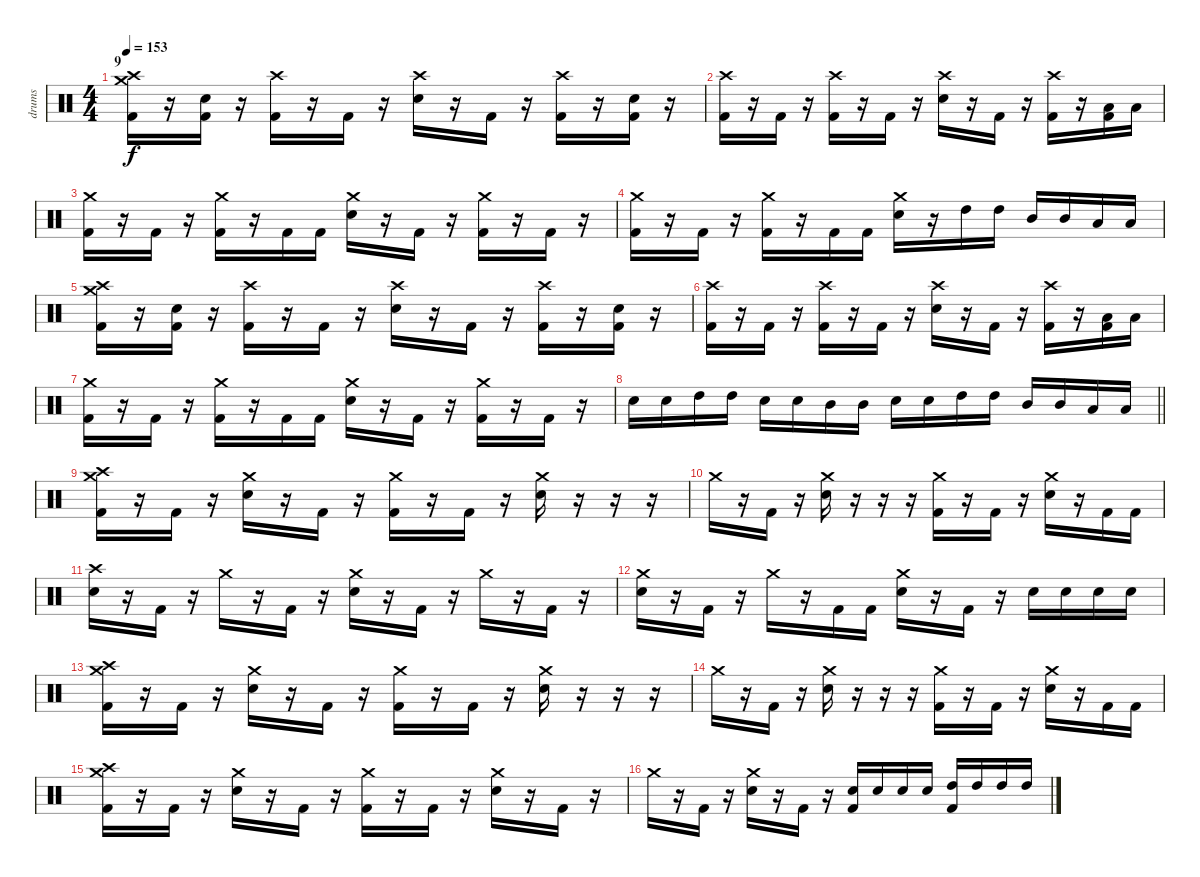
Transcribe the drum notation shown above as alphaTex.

\track ("drums" "drums") {instrument percussion}
\staff {score}
\articulation defaults
\ts (4 4)
\section ("" "9")
\tempo 153
\clef neutral
\ks c
("Crash medium (hit)" "Crash high (hit)" "Kick (hit) 2").16{dy f} r.16 ("Electric Snare (hit)" "Kick (hit) 2").16 r.16 ("Crash high (hit)" "Kick (hit) 2").16 r.16 "Kick (hit) 2".16 r.16 ("Crash high (hit)" "Electric Snare (hit)").16 r.16 "Kick (hit) 2".16 r.16 ("Crash high (hit)" "Kick (hit) 2").16 r.16 ("Electric Snare (hit)" "Kick (hit) 2").16 r.16 |
("Crash high (hit)" "Kick (hit) 2").16 r.16 "Kick (hit) 2".16 r.16 ("Crash high (hit)" "Kick (hit) 2").16 r.16 "Kick (hit) 2".16 r.16 ("Crash high (hit)" "Electric Snare (hit)").16 r.16 "Kick (hit) 2".16 r.16 ("Crash high (hit)" "Kick (hit) 2").16 r.16 ("Low Floor Tom (hit)" "Kick (hit) 2").16 "Low Floor Tom (hit)".16 |
("Crash medium (hit)" "Kick (hit) 2").16 r.16 "Kick (hit) 2".16 r.16 ("Crash medium (hit)" "Kick (hit) 2").16 r.16 "Kick (hit) 2".16 "Kick (hit) 2".16 ("Crash medium (hit)" "Electric Snare (hit)").16 r.16 "Kick (hit) 2".16 r.16 ("Crash medium (hit)" "Kick (hit) 2").16 r.16 "Kick (hit) 2".16 r.16 |
("Crash medium (hit)" "Kick (hit) 2").16 r.16 "Kick (hit) 2".16 r.16 ("Crash medium (hit)" "Kick (hit) 2").16 r.16 "Kick (hit) 2".16 "Kick (hit) 2".16 ("Crash medium (hit)" "Electric Snare (hit)").16 r.16 "High Tom (hit)".16 "High Tom (hit)".16 "Mid Tom (hit)".16 "Mid Tom (hit)".16 "Low Floor Tom (hit)".16 "Low Floor Tom (hit)".16 |
("Crash medium (hit)" "Crash high (hit)" "Kick (hit) 2").16 r.16 ("Electric Snare (hit)" "Kick (hit) 2").16 r.16 ("Crash high (hit)" "Kick (hit) 2").16 r.16 "Kick (hit) 2".16 r.16 ("Crash high (hit)" "Electric Snare (hit)").16 r.16 "Kick (hit) 2".16 r.16 ("Crash high (hit)" "Kick (hit) 2").16 r.16 ("Electric Snare (hit)" "Kick (hit) 2").16 r.16 |
("Crash high (hit)" "Kick (hit) 2").16 r.16 "Kick (hit) 2".16 r.16 ("Crash high (hit)" "Kick (hit) 2").16 r.16 "Kick (hit) 2".16 r.16 ("Crash high (hit)" "Electric Snare (hit)").16 r.16 "Kick (hit) 2".16 r.16 ("Crash high (hit)" "Kick (hit) 2").16 r.16 ("Low Floor Tom (hit)" "Kick (hit) 2").16 "Low Floor Tom (hit)".16 |
("Crash medium (hit)" "Kick (hit) 2").16 r.16 "Kick (hit) 2".16 r.16 ("Crash medium (hit)" "Kick (hit) 2").16 r.16 "Kick (hit) 2".16 "Kick (hit) 2".16 ("Crash medium (hit)" "Electric Snare (hit)").16 r.16 "Kick (hit) 2".16 r.16 ("Crash medium (hit)" "Kick (hit) 2").16 r.16 "Kick (hit) 2".16 r.16 |
\barLineRight lightlight "Electric Snare (hit)".16 "Electric Snare (hit)".16 "High Tom (hit)".16 "High Tom (hit)".16 "Electric Snare (hit)".16 "Electric Snare (hit)".16 "Mid Tom (hit)".16 "Mid Tom (hit)".16 "Electric Snare (hit)".16 "Electric Snare (hit)".16 "High Tom (hit)".16 "High Tom (hit)".16 "Mid Tom (hit)".16 "Mid Tom (hit)".16 "Low Floor Tom (hit)".16 "Low Floor Tom (hit)".16
|
("Crash medium (hit)" "Crash high (hit)" "Kick (hit) 2").16 r.16 "Kick (hit) 2".16 r.16 ("Crash medium (hit)" "Electric Snare (hit)").16 r.16 "Kick (hit) 2".16 r.16 ("Crash medium (hit)" "Kick (hit) 2").16 r.16 "Kick (hit) 2".16 r.16 ("Crash medium (hit)" "Electric Snare (hit)").16 r.16 r.16 r.16 |
"Crash medium (hit)".16 r.16 "Kick (hit) 2".16 r.16 ("Crash medium (hit)" "Electric Snare (hit)").16 r.16 r.16 r.16 ("Crash medium (hit)" "Kick (hit) 2").16 r.16 "Kick (hit) 2".16 r.16 ("Crash medium (hit)" "Electric Snare (hit)").16 r.16 "Kick (hit) 2".16 "Kick (hit) 2".16 |
("Crash high (hit)" "Electric Snare (hit)").16 r.16 "Kick (hit) 2".16 r.16 "Crash medium (hit)".16 r.16 "Kick (hit) 2".16 r.16 ("Crash medium (hit)" "Electric Snare (hit)").16 r.16 "Kick (hit) 2".16 r.16 "Crash medium (hit)".16 r.16 "Kick (hit) 2".16 r.16 |
("Crash medium (hit)" "Electric Snare (hit)").16 r.16 "Kick (hit) 2".16 r.16 "Crash medium (hit)".16 r.16 "Kick (hit) 2".16 "Kick (hit) 2".16 ("Crash medium (hit)" "Electric Snare (hit)").16 r.16 "Kick (hit) 2".16 r.16 "Electric Snare (hit)".16 "Electric Snare (hit)".16 "Electric Snare (hit)".16 "Electric Snare (hit)".16 |
("Crash medium (hit)" "Crash high (hit)" "Kick (hit) 2").16 r.16 "Kick (hit) 2".16 r.16 ("Crash medium (hit)" "Electric Snare (hit)").16 r.16 "Kick (hit) 2".16 r.16 ("Crash medium (hit)" "Kick (hit) 2").16 r.16 "Kick (hit) 2".16 r.16 ("Crash medium (hit)" "Electric Snare (hit)").16 r.16 r.16 r.16 |
"Crash medium (hit)".16 r.16 "Kick (hit) 2".16 r.16 ("Crash medium (hit)" "Electric Snare (hit)").16 r.16 r.16 r.16 ("Crash medium (hit)" "Kick (hit) 2").16 r.16 "Kick (hit) 2".16 r.16 ("Crash medium (hit)" "Electric Snare (hit)").16 r.16 "Kick (hit) 2".16 "Kick (hit) 2".16 |
("Crash medium (hit)" "Crash high (hit)" "Kick (hit) 2").16 r.16 "Kick (hit) 2".16 r.16 ("Crash medium (hit)" "Electric Snare (hit)").16 r.16 "Kick (hit) 2".16 r.16 ("Crash medium (hit)" "Kick (hit) 2").16 r.16 "Kick (hit) 2".16 r.16 ("Crash medium (hit)" "Electric Snare (hit)").16 r.16 "Kick (hit) 2".16 r.16 |
"Crash medium (hit)".16 r.16 "Kick (hit) 2".16 r.16 ("Crash medium (hit)" "Electric Snare (hit)").16 r.16 "Kick (hit) 2".16 r.16 ("Electric Snare (hit)" "Kick (hit) 2").16 "Electric Snare (hit)".16 "Electric Snare (hit)".16 "Electric Snare (hit)".16 ("High Tom (hit)" "Kick (hit) 2").16 "High Tom (hit)".16 "High Tom (hit)".16 "High Tom (hit)".16
